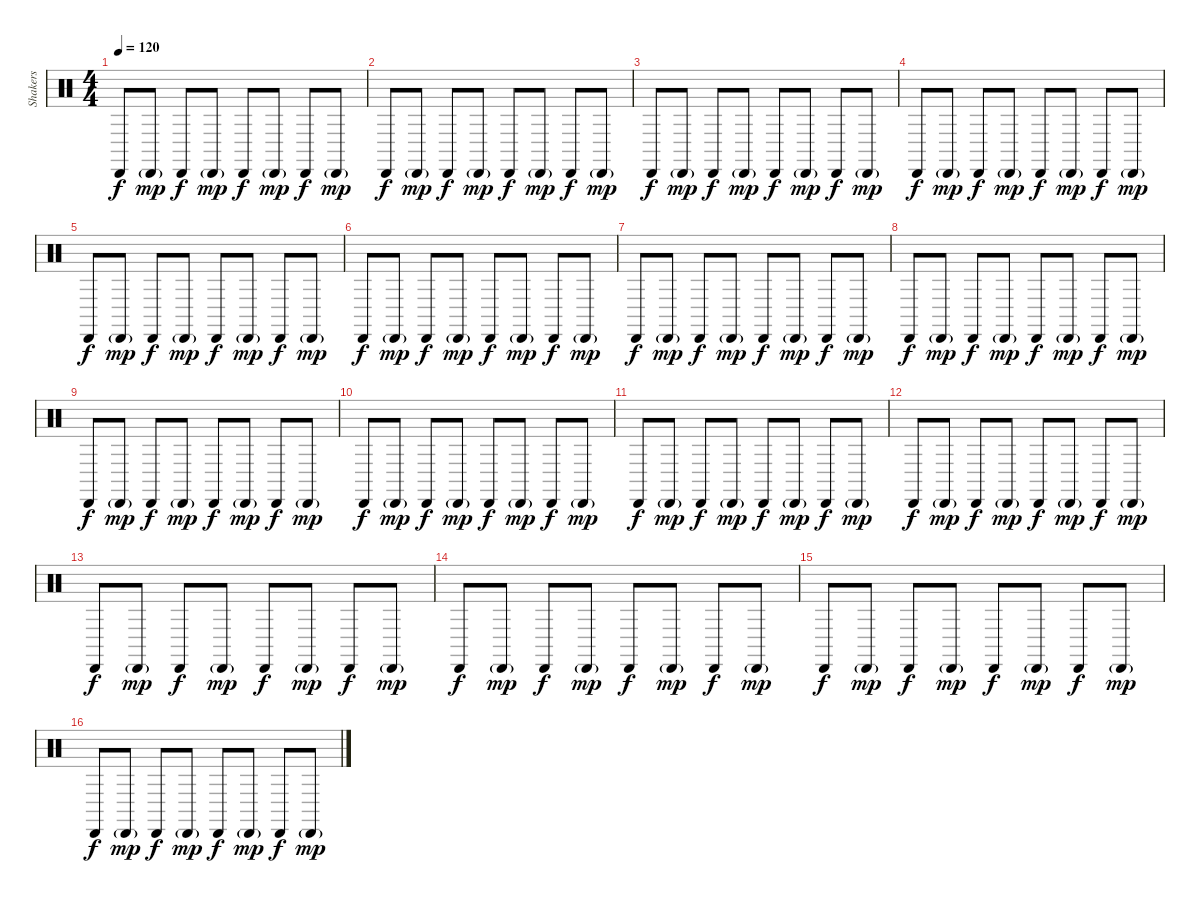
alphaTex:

\track ("Shakers" "Shakers") {instrument percussion}
\staff {score}
\articulation defaults
\ts (4 4)
\tempo 120
\clef neutral
\ks c "Cabasa (hit)".8{dy f} "Cabasa (hit)"{g}.8{dy mp} "Cabasa (hit)".8{dy f} "Cabasa (hit)"{g}.8{dy mp} "Cabasa (hit)".8{dy f} "Cabasa (hit)"{g}.8{dy mp} "Cabasa (hit)".8{dy f} "Cabasa (hit)"{g}.8{dy mp}
|
"Cabasa (hit)".8{dy f} "Cabasa (hit)"{g}.8{dy mp} "Cabasa (hit)".8{dy f} "Cabasa (hit)"{g}.8{dy mp} "Cabasa (hit)".8{dy f} "Cabasa (hit)"{g}.8{dy mp} "Cabasa (hit)".8{dy f} "Cabasa (hit)"{g}.8{dy mp} |
"Cabasa (hit)".8{dy f} "Cabasa (hit)"{g}.8{dy mp} "Cabasa (hit)".8{dy f} "Cabasa (hit)"{g}.8{dy mp} "Cabasa (hit)".8{dy f} "Cabasa (hit)"{g}.8{dy mp} "Cabasa (hit)".8{dy f} "Cabasa (hit)"{g}.8{dy mp} |
"Cabasa (hit)".8{dy f} "Cabasa (hit)"{g}.8{dy mp} "Cabasa (hit)".8{dy f} "Cabasa (hit)"{g}.8{dy mp} "Cabasa (hit)".8{dy f} "Cabasa (hit)"{g}.8{dy mp} "Cabasa (hit)".8{dy f} "Cabasa (hit)"{g}.8{dy mp} |
"Cabasa (hit)".8{dy f} "Cabasa (hit)"{g}.8{dy mp} "Cabasa (hit)".8{dy f} "Cabasa (hit)"{g}.8{dy mp} "Cabasa (hit)".8{dy f} "Cabasa (hit)"{g}.8{dy mp} "Cabasa (hit)".8{dy f} "Cabasa (hit)"{g}.8{dy mp} |
"Cabasa (hit)".8{dy f} "Cabasa (hit)"{g}.8{dy mp} "Cabasa (hit)".8{dy f} "Cabasa (hit)"{g}.8{dy mp} "Cabasa (hit)".8{dy f} "Cabasa (hit)"{g}.8{dy mp} "Cabasa (hit)".8{dy f} "Cabasa (hit)"{g}.8{dy mp} |
"Cabasa (hit)".8{dy f} "Cabasa (hit)"{g}.8{dy mp} "Cabasa (hit)".8{dy f} "Cabasa (hit)"{g}.8{dy mp} "Cabasa (hit)".8{dy f} "Cabasa (hit)"{g}.8{dy mp} "Cabasa (hit)".8{dy f} "Cabasa (hit)"{g}.8{dy mp} |
"Cabasa (hit)".8{dy f} "Cabasa (hit)"{g}.8{dy mp} "Cabasa (hit)".8{dy f} "Cabasa (hit)"{g}.8{dy mp} "Cabasa (hit)".8{dy f} "Cabasa (hit)"{g}.8{dy mp} "Cabasa (hit)".8{dy f} "Cabasa (hit)"{g}.8{dy mp} |
"Cabasa (hit)".8{dy f} "Cabasa (hit)"{g}.8{dy mp} "Cabasa (hit)".8{dy f} "Cabasa (hit)"{g}.8{dy mp} "Cabasa (hit)".8{dy f} "Cabasa (hit)"{g}.8{dy mp} "Cabasa (hit)".8{dy f} "Cabasa (hit)"{g}.8{dy mp} |
"Cabasa (hit)".8{dy f} "Cabasa (hit)"{g}.8{dy mp} "Cabasa (hit)".8{dy f} "Cabasa (hit)"{g}.8{dy mp} "Cabasa (hit)".8{dy f} "Cabasa (hit)"{g}.8{dy mp} "Cabasa (hit)".8{dy f} "Cabasa (hit)"{g}.8{dy mp} |
"Cabasa (hit)".8{dy f} "Cabasa (hit)"{g}.8{dy mp} "Cabasa (hit)".8{dy f} "Cabasa (hit)"{g}.8{dy mp} "Cabasa (hit)".8{dy f} "Cabasa (hit)"{g}.8{dy mp} "Cabasa (hit)".8{dy f} "Cabasa (hit)"{g}.8{dy mp} |
"Cabasa (hit)".8{dy f} "Cabasa (hit)"{g}.8{dy mp} "Cabasa (hit)".8{dy f} "Cabasa (hit)"{g}.8{dy mp} "Cabasa (hit)".8{dy f} "Cabasa (hit)"{g}.8{dy mp} "Cabasa (hit)".8{dy f} "Cabasa (hit)"{g}.8{dy mp} |
"Cabasa (hit)".8{dy f} "Cabasa (hit)"{g}.8{dy mp} "Cabasa (hit)".8{dy f} "Cabasa (hit)"{g}.8{dy mp} "Cabasa (hit)".8{dy f} "Cabasa (hit)"{g}.8{dy mp} "Cabasa (hit)".8{dy f} "Cabasa (hit)"{g}.8{dy mp} |
"Cabasa (hit)".8{dy f} "Cabasa (hit)"{g}.8{dy mp} "Cabasa (hit)".8{dy f} "Cabasa (hit)"{g}.8{dy mp} "Cabasa (hit)".8{dy f} "Cabasa (hit)"{g}.8{dy mp} "Cabasa (hit)".8{dy f} "Cabasa (hit)"{g}.8{dy mp} |
"Cabasa (hit)".8{dy f} "Cabasa (hit)"{g}.8{dy mp} "Cabasa (hit)".8{dy f} "Cabasa (hit)"{g}.8{dy mp} "Cabasa (hit)".8{dy f} "Cabasa (hit)"{g}.8{dy mp} "Cabasa (hit)".8{dy f} "Cabasa (hit)"{g}.8{dy mp} |
"Cabasa (hit)".8{dy f} "Cabasa (hit)"{g}.8{dy mp} "Cabasa (hit)".8{dy f} "Cabasa (hit)"{g}.8{dy mp} "Cabasa (hit)".8{dy f} "Cabasa (hit)"{g}.8{dy mp} "Cabasa (hit)".8{dy f} "Cabasa (hit)"{g}.8{dy mp}
